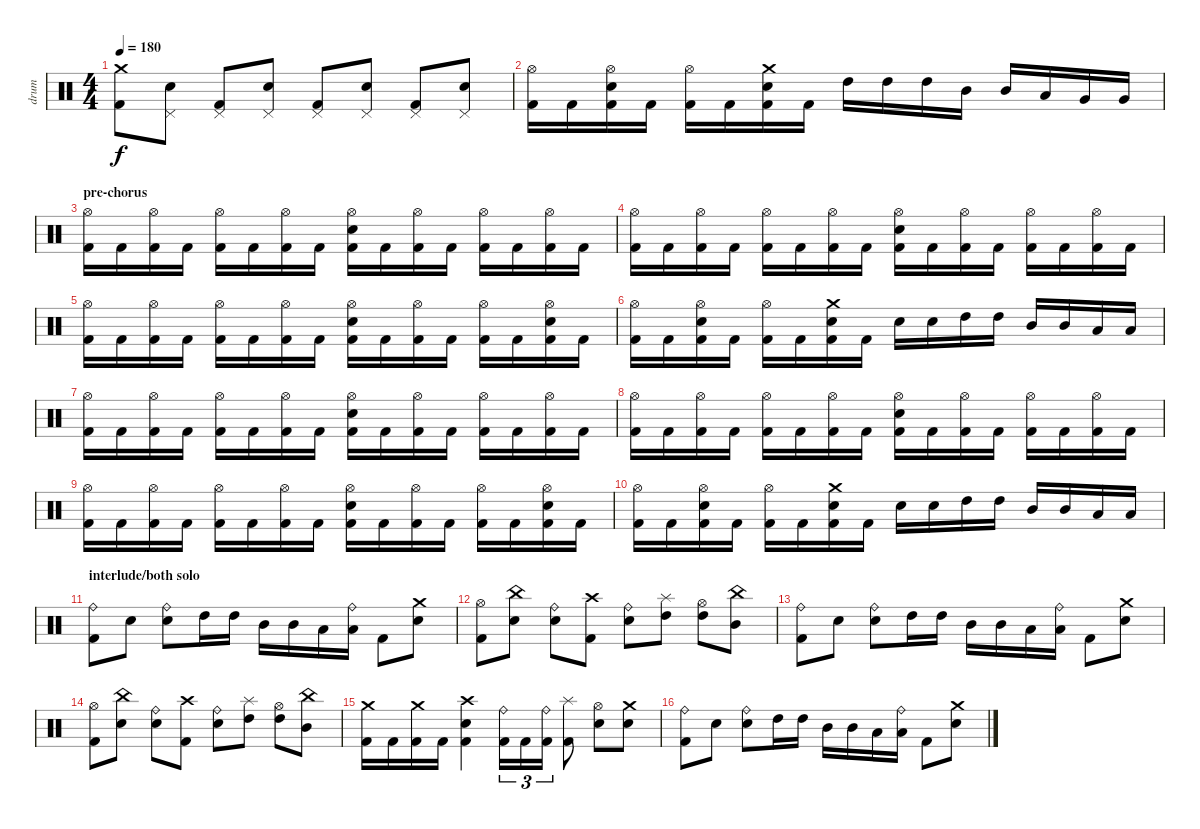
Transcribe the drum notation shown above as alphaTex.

\track ("drum" "drum") {instrument percussion}
\staff {score}
\articulation defaults
\ts (4 4)
\tempo 180
\clef neutral
\ks c
("Crash medium (hit)" "Kick (hit) 2").8{dy f} ("Pedal Hi-Hat (hit)" "Electric Snare (hit)").8 ("Pedal Hi-Hat (hit)" "Kick (hit) 2").8 ("Pedal Hi-Hat (hit)" "Electric Snare (hit)").8 ("Pedal Hi-Hat (hit)" "Kick (hit) 2").8 ("Pedal Hi-Hat (hit)" "Electric Snare (hit)").8 ("Pedal Hi-Hat (hit)" "Kick (hit) 2").8 ("Pedal Hi-Hat (hit)" "Electric Snare (hit)").8 |
("Hi-Hat (open)" "Kick (hit) 2").16 "Kick (hit) 2".16 ("Hi-Hat (open)" "Electric Snare (hit)" "Kick (hit) 2").16 "Kick (hit) 2".16 ("Hi-Hat (open)" "Kick (hit) 2").16 "Kick (hit) 2".16 ("Crash medium (hit)" "Electric Snare (hit)" "Kick (hit) 2").16 "Kick (hit) 2".16 "High Tom (hit)".16 "High Tom (hit)".16 "High Tom (hit)".16 "Mid Tom (hit)".16 "Mid Tom (hit)".16 "Low Tom (hit)".16 "Very Low Tom (hit)".16 "Very Low Tom (hit)".16 |
\section ("" "pre-chorus")
("Hi-Hat (open)" "Kick (hit) 2").16 "Kick (hit) 2".16 ("Hi-Hat (open)" "Kick (hit) 2").16 "Kick (hit) 2".16 ("Hi-Hat (open)" "Kick (hit) 2").16 "Kick (hit) 2".16 ("Hi-Hat (open)" "Kick (hit) 2").16 "Kick (hit) 2".16 ("Hi-Hat (open)" "Electric Snare (hit)" "Kick (hit) 2").16 "Kick (hit) 2".16 ("Hi-Hat (open)" "Kick (hit) 2").16 "Kick (hit) 2".16 ("Hi-Hat (open)" "Kick (hit) 2").16 "Kick (hit) 2".16 ("Hi-Hat (open)" "Kick (hit) 2").16 "Kick (hit) 2".16 |
("Hi-Hat (open)" "Kick (hit) 2").16 "Kick (hit) 2".16 ("Hi-Hat (open)" "Kick (hit) 2").16 "Kick (hit) 2".16 ("Hi-Hat (open)" "Kick (hit) 2").16 "Kick (hit) 2".16 ("Hi-Hat (open)" "Kick (hit) 2").16 "Kick (hit) 2".16 ("Hi-Hat (open)" "Electric Snare (hit)" "Kick (hit) 2").16 "Kick (hit) 2".16 ("Hi-Hat (open)" "Kick (hit) 2").16 "Kick (hit) 2".16 ("Hi-Hat (open)" "Kick (hit) 2").16 "Kick (hit) 2".16 ("Hi-Hat (open)" "Kick (hit) 2").16 "Kick (hit) 2".16 |
("Hi-Hat (open)" "Kick (hit) 2").16 "Kick (hit) 2".16 ("Hi-Hat (open)" "Kick (hit) 2").16 "Kick (hit) 2".16 ("Hi-Hat (open)" "Kick (hit) 2").16 "Kick (hit) 2".16 ("Hi-Hat (open)" "Kick (hit) 2").16 "Kick (hit) 2".16 ("Hi-Hat (open)" "Electric Snare (hit)" "Kick (hit) 2").16 "Kick (hit) 2".16 ("Hi-Hat (open)" "Kick (hit) 2").16 "Kick (hit) 2".16 ("Hi-Hat (open)" "Kick (hit) 2").16 "Kick (hit) 2".16 ("Hi-Hat (open)" "Electric Snare (hit)" "Kick (hit) 2").16 "Kick (hit) 2".16 |
("Hi-Hat (open)" "Kick (hit) 2").16 "Kick (hit) 2".16 ("Hi-Hat (open)" "Electric Snare (hit)" "Kick (hit) 2").16 "Kick (hit) 2".16 ("Hi-Hat (open)" "Kick (hit) 2").16 "Kick (hit) 2".16 ("Crash medium (hit)" "Electric Snare (hit)" "Kick (hit) 2").16 "Kick (hit) 2".16 "Electric Snare (hit)".16 "Electric Snare (hit)".16 "High Tom (hit)".16 "High Tom (hit)".16 "Mid Tom (hit)".16 "Mid Tom (hit)".16 "Low Tom (hit)".16 "Low Tom (hit)".16 |
("Hi-Hat (open)" "Kick (hit) 2").16 "Kick (hit) 2".16 ("Hi-Hat (open)" "Kick (hit) 2").16 "Kick (hit) 2".16 ("Hi-Hat (open)" "Kick (hit) 2").16 "Kick (hit) 2".16 ("Hi-Hat (open)" "Kick (hit) 2").16 "Kick (hit) 2".16 ("Hi-Hat (open)" "Electric Snare (hit)" "Kick (hit) 2").16 "Kick (hit) 2".16 ("Hi-Hat (open)" "Kick (hit) 2").16 "Kick (hit) 2".16 ("Hi-Hat (open)" "Kick (hit) 2").16 "Kick (hit) 2".16 ("Hi-Hat (open)" "Kick (hit) 2").16 "Kick (hit) 2".16 |
("Hi-Hat (open)" "Kick (hit) 2").16 "Kick (hit) 2".16 ("Hi-Hat (open)" "Kick (hit) 2").16 "Kick (hit) 2".16 ("Hi-Hat (open)" "Kick (hit) 2").16 "Kick (hit) 2".16 ("Hi-Hat (open)" "Kick (hit) 2").16 "Kick (hit) 2".16 ("Hi-Hat (open)" "Electric Snare (hit)" "Kick (hit) 2").16 "Kick (hit) 2".16 ("Hi-Hat (open)" "Kick (hit) 2").16 "Kick (hit) 2".16 ("Hi-Hat (open)" "Kick (hit) 2").16 "Kick (hit) 2".16 ("Hi-Hat (open)" "Kick (hit) 2").16 "Kick (hit) 2".16 |
("Hi-Hat (open)" "Kick (hit) 2").16 "Kick (hit) 2".16 ("Hi-Hat (open)" "Kick (hit) 2").16 "Kick (hit) 2".16 ("Hi-Hat (open)" "Kick (hit) 2").16 "Kick (hit) 2".16 ("Hi-Hat (open)" "Kick (hit) 2").16 "Kick (hit) 2".16 ("Hi-Hat (open)" "Electric Snare (hit)" "Kick (hit) 2").16 "Kick (hit) 2".16 ("Hi-Hat (open)" "Kick (hit) 2").16 "Kick (hit) 2".16 ("Hi-Hat (open)" "Kick (hit) 2").16 "Kick (hit) 2".16 ("Hi-Hat (open)" "Electric Snare (hit)" "Kick (hit) 2").16 "Kick (hit) 2".16 |
("Hi-Hat (open)" "Kick (hit) 2").16 "Kick (hit) 2".16 ("Hi-Hat (open)" "Electric Snare (hit)" "Kick (hit) 2").16 "Kick (hit) 2".16 ("Hi-Hat (open)" "Kick (hit) 2").16 "Kick (hit) 2".16 ("Crash medium (hit)" "Electric Snare (hit)" "Kick (hit) 2").16 "Kick (hit) 2".16 "Electric Snare (hit)".16 "Electric Snare (hit)".16 "High Tom (hit)".16 "High Tom (hit)".16 "Mid Tom (hit)".16 "Mid Tom (hit)".16 "Low Tom (hit)".16 "Low Tom (hit)".16 |
\section ("" "interlude/both solo")
("Ride (bell)" "Kick (hit) 2").8 "Electric Snare (hit)".8 ("Ride (bell)" "Electric Snare (hit)").8 "High Tom (hit)".16 "High Tom (hit)".16 "Mid Tom (hit)".16 "Mid Tom (hit)".16 "Low Tom (hit)".16 ("Ride (bell)" "Low Tom (hit)").16 "Kick (hit) 2".8 ("Crash medium (hit)" "Electric Snare (hit)").8 |
("Hi-Hat (open)" "Kick (hit) 2").8 ("China (hit)" "Electric Snare (hit)").8 ("Ride (bell)" "Electric Snare (hit)").8 ("Crash high (hit)" "Kick (hit) 2").8 ("Ride (bell)" "Electric Snare (hit)").8 ("Splash (hit)" "High Tom (hit)").8 ("Hi-Hat (open)" "High Tom (hit)").8 ("China (hit)" "Mid Tom (hit)").8 |
("Ride (bell)" "Kick (hit) 2").8 "Electric Snare (hit)".8 ("Ride (bell)" "Electric Snare (hit)").8 "High Tom (hit)".16 "High Tom (hit)".16 "Mid Tom (hit)".16 "Mid Tom (hit)".16 "Low Tom (hit)".16 ("Ride (bell)" "Low Tom (hit)").16 "Kick (hit) 2".8 ("Crash medium (hit)" "Electric Snare (hit)").8 |
("Hi-Hat (open)" "Kick (hit) 2").8 ("China (hit)" "Electric Snare (hit)").8 ("Ride (bell)" "Electric Snare (hit)").8 ("Crash high (hit)" "Kick (hit) 2").8 ("Ride (bell)" "Electric Snare (hit)").8 ("Splash (hit)" "High Tom (hit)").8 ("Hi-Hat (open)" "High Tom (hit)").8 ("China (hit)" "Mid Tom (hit)").8 |
("Crash medium (hit)" "Kick (hit) 2").16 "Kick (hit) 2".16 ("Crash medium (hit)" "Kick (hit) 2").16 "Kick (hit) 2".16 ("Crash high (hit)" "Electric Snare (hit)" "Kick (hit) 2").4 ("Ride (bell)" "Kick (hit) 2").16{tu (3 2)} "Kick (hit) 2".16{tu (3 2)} ("Ride (bell)" "Kick (hit) 2").16{tu (3 2)} ("Splash (hit)" "Kick (hit) 2").8 ("Hi-Hat (open)" "Electric Snare (hit)").8 ("Crash medium (hit)" "Electric Snare (hit)").8 |
("Ride (bell)" "Kick (hit) 2").8 "Electric Snare (hit)".8 ("Ride (bell)" "Electric Snare (hit)").8 "High Tom (hit)".16 "High Tom (hit)".16 "Mid Tom (hit)".16 "Mid Tom (hit)".16 "Low Tom (hit)".16 ("Ride (bell)" "Low Tom (hit)").16 "Kick (hit) 2".8 ("Crash medium (hit)" "Electric Snare (hit)").8
